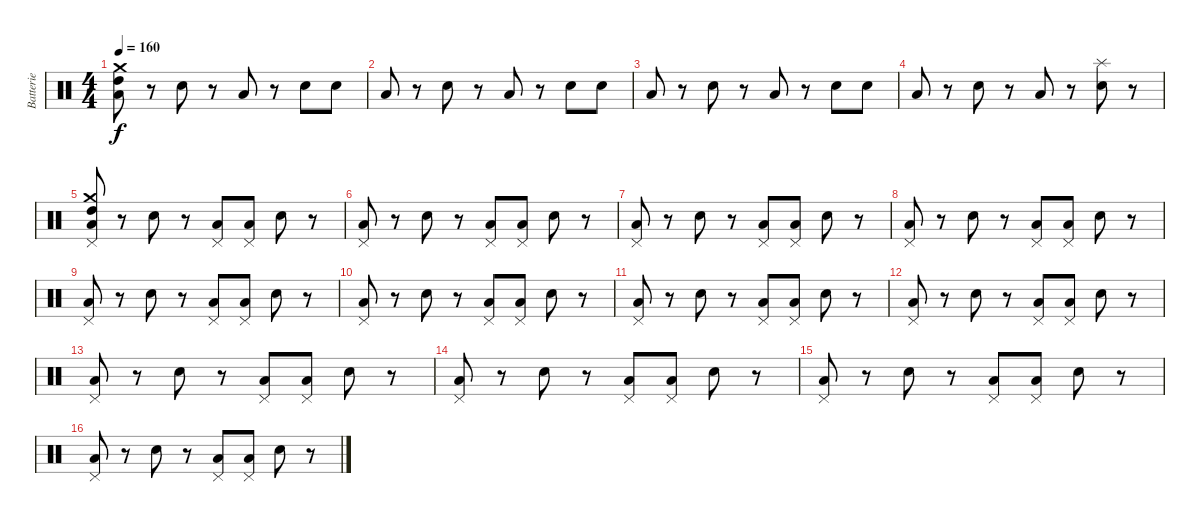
\track ("Batterie" "Batterie") {instrument percussion}
\staff {score}
\articulation defaults
\ts (4 4)
\tempo 160
\clef neutral
\ks c
("Low Floor Tom (hit)" "Crash medium (hit)" "High Tom (hit)").8{dy f} r.8 "Electric Snare (hit)".8 r.8 "Low Floor Tom (hit)".8 r.8 "Electric Snare (hit)".8 "Electric Snare (hit)".8 |
"Low Floor Tom (hit)".8 r.8 "Electric Snare (hit)".8 r.8 "Low Floor Tom (hit)".8 r.8 "Electric Snare (hit)".8 "Electric Snare (hit)".8 |
"Low Floor Tom (hit)".8 r.8 "Electric Snare (hit)".8 r.8 "Low Floor Tom (hit)".8 r.8 "Electric Snare (hit)".8 "Electric Snare (hit)".8 |
"Low Floor Tom (hit)".8 r.8 "Electric Snare (hit)".8 r.8 "Low Floor Tom (hit)".8 r.8 ("Electric Snare (hit)" "Splash (hit)").8 r.8 |
("Pedal Hi-Hat (hit)" "Low Floor Tom (hit)" "Crash medium (hit)" "High Tom (hit)").8 r.8 "Electric Snare (hit)".8 r.8 ("Pedal Hi-Hat (hit)" "Low Floor Tom (hit)").8 ("Pedal Hi-Hat (hit)" "Low Floor Tom (hit)").8 "Electric Snare (hit)".8 r.8 |
("Pedal Hi-Hat (hit)" "Low Floor Tom (hit)").8 r.8 "Electric Snare (hit)".8 r.8 ("Pedal Hi-Hat (hit)" "Low Floor Tom (hit)").8 ("Pedal Hi-Hat (hit)" "Low Floor Tom (hit)").8 "Electric Snare (hit)".8 r.8 |
("Pedal Hi-Hat (hit)" "Low Floor Tom (hit)").8 r.8 "Electric Snare (hit)".8 r.8 ("Pedal Hi-Hat (hit)" "Low Floor Tom (hit)").8 ("Pedal Hi-Hat (hit)" "Low Floor Tom (hit)").8 "Electric Snare (hit)".8 r.8 |
("Pedal Hi-Hat (hit)" "Low Floor Tom (hit)").8 r.8 "Electric Snare (hit)".8 r.8 ("Pedal Hi-Hat (hit)" "Low Floor Tom (hit)").8 ("Pedal Hi-Hat (hit)" "Low Floor Tom (hit)").8 "Electric Snare (hit)".8 r.8 |
("Pedal Hi-Hat (hit)" "Low Floor Tom (hit)").8 r.8 "Electric Snare (hit)".8 r.8 ("Pedal Hi-Hat (hit)" "Low Floor Tom (hit)").8 ("Pedal Hi-Hat (hit)" "Low Floor Tom (hit)").8 "Electric Snare (hit)".8 r.8 |
("Pedal Hi-Hat (hit)" "Low Floor Tom (hit)").8 r.8 "Electric Snare (hit)".8 r.8 ("Pedal Hi-Hat (hit)" "Low Floor Tom (hit)").8 ("Pedal Hi-Hat (hit)" "Low Floor Tom (hit)").8 "Electric Snare (hit)".8 r.8 |
("Pedal Hi-Hat (hit)" "Low Floor Tom (hit)").8 r.8 "Electric Snare (hit)".8 r.8 ("Pedal Hi-Hat (hit)" "Low Floor Tom (hit)").8 ("Pedal Hi-Hat (hit)" "Low Floor Tom (hit)").8 "Electric Snare (hit)".8 r.8 |
("Pedal Hi-Hat (hit)" "Low Floor Tom (hit)").8 r.8 "Electric Snare (hit)".8 r.8 ("Pedal Hi-Hat (hit)" "Low Floor Tom (hit)").8 ("Pedal Hi-Hat (hit)" "Low Floor Tom (hit)").8 "Electric Snare (hit)".8 r.8 |
("Pedal Hi-Hat (hit)" "Low Floor Tom (hit)").8 r.8 "Electric Snare (hit)".8 r.8 ("Pedal Hi-Hat (hit)" "Low Floor Tom (hit)").8 ("Pedal Hi-Hat (hit)" "Low Floor Tom (hit)").8 "Electric Snare (hit)".8 r.8 |
("Pedal Hi-Hat (hit)" "Low Floor Tom (hit)").8 r.8 "Electric Snare (hit)".8 r.8 ("Pedal Hi-Hat (hit)" "Low Floor Tom (hit)").8 ("Pedal Hi-Hat (hit)" "Low Floor Tom (hit)").8 "Electric Snare (hit)".8 r.8 |
("Pedal Hi-Hat (hit)" "Low Floor Tom (hit)").8 r.8 "Electric Snare (hit)".8 r.8 ("Pedal Hi-Hat (hit)" "Low Floor Tom (hit)").8 ("Pedal Hi-Hat (hit)" "Low Floor Tom (hit)").8 "Electric Snare (hit)".8 r.8 |
("Pedal Hi-Hat (hit)" "Low Floor Tom (hit)").8 r.8 "Electric Snare (hit)".8 r.8 ("Pedal Hi-Hat (hit)" "Low Floor Tom (hit)").8 ("Pedal Hi-Hat (hit)" "Low Floor Tom (hit)").8 "Electric Snare (hit)".8 r.8
